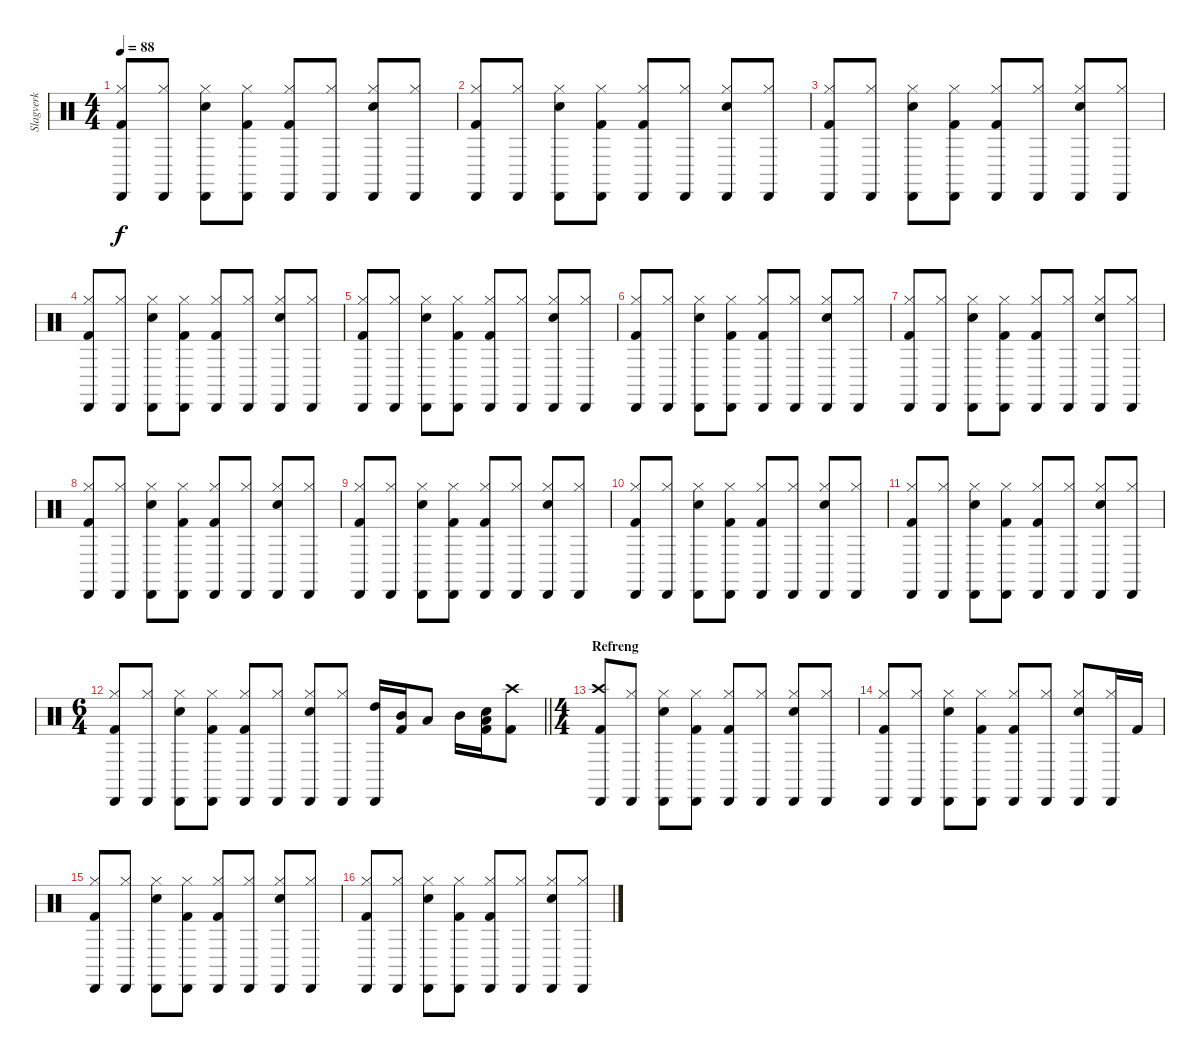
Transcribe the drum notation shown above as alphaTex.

\track ("Slagverk" "Slagverk") {instrument percussion}
\staff {score}
\articulation defaults
\ts (4 4)
\tempo 88
\clef neutral
\ks c
("Hi-Hat (closed)" "Cabasa (hit)" "Kick (hit) 2").8{dy f} ("Hi-Hat (closed)" "Cabasa (hit)").8 ("Hi-Hat (closed)" "Snare (hit) 2" "Cabasa (hit)").8 ("Hi-Hat (closed)" "Cabasa (hit)" "Kick (hit) 2").8 ("Hi-Hat (closed)" "Cabasa (hit)" "Kick (hit) 2").8 ("Hi-Hat (closed)" "Cabasa (hit)").8 ("Hi-Hat (closed)" "Snare (hit) 2" "Cabasa (hit)").8 ("Hi-Hat (closed)" "Cabasa (hit)").8 |
("Hi-Hat (closed)" "Cabasa (hit)" "Kick (hit) 2").8 ("Hi-Hat (closed)" "Cabasa (hit)").8 ("Hi-Hat (closed)" "Snare (hit) 2" "Cabasa (hit)").8 ("Hi-Hat (closed)" "Cabasa (hit)" "Kick (hit) 2").8 ("Hi-Hat (closed)" "Cabasa (hit)" "Kick (hit) 2").8 ("Hi-Hat (closed)" "Cabasa (hit)").8 ("Hi-Hat (closed)" "Snare (hit) 2" "Cabasa (hit)").8 ("Hi-Hat (closed)" "Cabasa (hit)").8 |
("Hi-Hat (closed)" "Cabasa (hit)" "Kick (hit) 2").8 ("Hi-Hat (closed)" "Cabasa (hit)").8 ("Hi-Hat (closed)" "Snare (hit) 2" "Cabasa (hit)").8 ("Hi-Hat (closed)" "Cabasa (hit)" "Kick (hit) 2").8 ("Hi-Hat (closed)" "Cabasa (hit)" "Kick (hit) 2").8 ("Hi-Hat (closed)" "Cabasa (hit)").8 ("Hi-Hat (closed)" "Snare (hit) 2" "Cabasa (hit)").8 ("Hi-Hat (closed)" "Cabasa (hit)").8 |
("Hi-Hat (closed)" "Cabasa (hit)" "Kick (hit) 2").8 ("Hi-Hat (closed)" "Cabasa (hit)").8 ("Hi-Hat (closed)" "Snare (hit) 2" "Cabasa (hit)").8 ("Hi-Hat (closed)" "Cabasa (hit)" "Kick (hit) 2").8 ("Hi-Hat (closed)" "Cabasa (hit)" "Kick (hit) 2").8 ("Hi-Hat (closed)" "Cabasa (hit)").8 ("Hi-Hat (closed)" "Snare (hit) 2" "Cabasa (hit)").8 ("Hi-Hat (closed)" "Cabasa (hit)").8 |
("Hi-Hat (closed)" "Cabasa (hit)" "Kick (hit) 2").8 ("Hi-Hat (closed)" "Cabasa (hit)").8 ("Hi-Hat (closed)" "Snare (hit) 2" "Cabasa (hit)").8 ("Hi-Hat (closed)" "Cabasa (hit)" "Kick (hit) 2").8 ("Hi-Hat (closed)" "Cabasa (hit)" "Kick (hit) 2").8 ("Hi-Hat (closed)" "Cabasa (hit)").8 ("Hi-Hat (closed)" "Snare (hit) 2" "Cabasa (hit)").8 ("Hi-Hat (closed)" "Cabasa (hit)").8 |
("Hi-Hat (closed)" "Cabasa (hit)" "Kick (hit) 2").8 ("Hi-Hat (closed)" "Cabasa (hit)").8 ("Hi-Hat (closed)" "Snare (hit) 2" "Cabasa (hit)").8 ("Hi-Hat (closed)" "Cabasa (hit)" "Kick (hit) 2").8 ("Hi-Hat (closed)" "Cabasa (hit)" "Kick (hit) 2").8 ("Hi-Hat (closed)" "Cabasa (hit)").8 ("Hi-Hat (closed)" "Snare (hit) 2" "Cabasa (hit)").8 ("Hi-Hat (closed)" "Cabasa (hit)").8 |
("Hi-Hat (closed)" "Cabasa (hit)" "Kick (hit) 2").8 ("Hi-Hat (closed)" "Cabasa (hit)").8 ("Hi-Hat (closed)" "Snare (hit) 2" "Cabasa (hit)").8 ("Hi-Hat (closed)" "Cabasa (hit)" "Kick (hit) 2").8 ("Hi-Hat (closed)" "Cabasa (hit)" "Kick (hit) 2").8 ("Hi-Hat (closed)" "Cabasa (hit)").8 ("Hi-Hat (closed)" "Snare (hit) 2" "Cabasa (hit)").8 ("Hi-Hat (closed)" "Cabasa (hit)").8 |
("Hi-Hat (closed)" "Cabasa (hit)" "Kick (hit) 2").8 ("Hi-Hat (closed)" "Cabasa (hit)").8 ("Hi-Hat (closed)" "Snare (hit) 2" "Cabasa (hit)").8 ("Hi-Hat (closed)" "Cabasa (hit)" "Kick (hit) 2").8 ("Hi-Hat (closed)" "Cabasa (hit)" "Kick (hit) 2").8 ("Hi-Hat (closed)" "Cabasa (hit)").8 ("Hi-Hat (closed)" "Snare (hit) 2" "Cabasa (hit)").8 ("Hi-Hat (closed)" "Cabasa (hit)").8 |
("Hi-Hat (closed)" "Cabasa (hit)" "Kick (hit) 2").8 ("Hi-Hat (closed)" "Cabasa (hit)").8 ("Hi-Hat (closed)" "Snare (hit) 2" "Cabasa (hit)").8 ("Hi-Hat (closed)" "Cabasa (hit)" "Kick (hit) 2").8 ("Hi-Hat (closed)" "Cabasa (hit)" "Kick (hit) 2").8 ("Hi-Hat (closed)" "Cabasa (hit)").8 ("Hi-Hat (closed)" "Snare (hit) 2" "Cabasa (hit)").8 ("Hi-Hat (closed)" "Cabasa (hit)").8 |
("Hi-Hat (closed)" "Cabasa (hit)" "Kick (hit) 2").8 ("Hi-Hat (closed)" "Cabasa (hit)").8 ("Hi-Hat (closed)" "Snare (hit) 2" "Cabasa (hit)").8 ("Hi-Hat (closed)" "Cabasa (hit)" "Kick (hit) 2").8 ("Hi-Hat (closed)" "Cabasa (hit)" "Kick (hit) 2").8 ("Hi-Hat (closed)" "Cabasa (hit)").8 ("Hi-Hat (closed)" "Snare (hit) 2" "Cabasa (hit)").8 ("Hi-Hat (closed)" "Cabasa (hit)").8 |
("Hi-Hat (closed)" "Cabasa (hit)" "Kick (hit) 2").8 ("Hi-Hat (closed)" "Cabasa (hit)").8 ("Hi-Hat (closed)" "Snare (hit) 2" "Cabasa (hit)").8 ("Hi-Hat (closed)" "Cabasa (hit)" "Kick (hit) 2").8 ("Hi-Hat (closed)" "Cabasa (hit)" "Kick (hit) 2").8 ("Hi-Hat (closed)" "Cabasa (hit)").8 ("Hi-Hat (closed)" "Snare (hit) 2" "Cabasa (hit)").8 ("Hi-Hat (closed)" "Cabasa (hit)").8 |
\ts (6 4)
\barLineRight lightlight
("Hi-Hat (closed)" "Cabasa (hit)" "Kick (hit) 2").8 ("Hi-Hat (closed)" "Cabasa (hit)").8 ("Hi-Hat (closed)" "Snare (hit) 2" "Cabasa (hit)").8 ("Hi-Hat (closed)" "Cabasa (hit)" "Kick (hit) 2").8 ("Hi-Hat (closed)" "Cabasa (hit)" "Kick (hit) 2").8 ("Hi-Hat (closed)" "Cabasa (hit)").8 ("Hi-Hat (closed)" "Snare (hit) 2" "Cabasa (hit)").8 ("Hi-Hat (closed)" "Cabasa (hit)").8 ("High Tom (hit)" "Cabasa (hit)").16 ("Mid Tom (hit)" "Kick (hit) 2").16 "Low Tom (hit)".8 "Mid Tom (hit)".16 ("Low Tom (hit)" "Snare (hit) 2" "Kick (hit) 2").16 ("Crash high (hit)" "Kick (hit) 2").8 |
\ts (4 4)
\section ("" "Refreng")
("Crash high (hit)" "Cabasa (hit)" "Kick (hit) 2").8 ("Hi-Hat (closed)" "Cabasa (hit)").8 ("Hi-Hat (closed)" "Snare (hit) 2" "Cabasa (hit)").8 ("Hi-Hat (closed)" "Cabasa (hit)" "Kick (hit) 2").8 ("Hi-Hat (closed)" "Cabasa (hit)" "Kick (hit) 2").8 ("Hi-Hat (closed)" "Cabasa (hit)").8 ("Hi-Hat (closed)" "Snare (hit) 2" "Cabasa (hit)").8 ("Hi-Hat (closed)" "Cabasa (hit)").8 |
("Hi-Hat (closed)" "Cabasa (hit)" "Kick (hit) 2").8 ("Hi-Hat (closed)" "Cabasa (hit)").8 ("Hi-Hat (closed)" "Snare (hit) 2" "Cabasa (hit)").8 ("Hi-Hat (closed)" "Cabasa (hit)" "Kick (hit) 2").8 ("Hi-Hat (closed)" "Cabasa (hit)" "Kick (hit) 2").8 ("Hi-Hat (closed)" "Cabasa (hit)").8 ("Hi-Hat (closed)" "Snare (hit) 2" "Cabasa (hit)").8 ("Hi-Hat (closed)" "Cabasa (hit)").16 "Kick (hit) 2".16 |
("Hi-Hat (closed)" "Cabasa (hit)" "Kick (hit) 2").8 ("Hi-Hat (closed)" "Cabasa (hit)").8 ("Hi-Hat (closed)" "Snare (hit) 2" "Cabasa (hit)").8 ("Hi-Hat (closed)" "Cabasa (hit)" "Kick (hit) 2").8 ("Hi-Hat (closed)" "Cabasa (hit)" "Kick (hit) 2").8 ("Hi-Hat (closed)" "Cabasa (hit)").8 ("Hi-Hat (closed)" "Snare (hit) 2" "Cabasa (hit)").8 ("Hi-Hat (closed)" "Cabasa (hit)").8 |
("Hi-Hat (closed)" "Cabasa (hit)" "Kick (hit) 2").8 ("Hi-Hat (closed)" "Cabasa (hit)").8 ("Hi-Hat (closed)" "Snare (hit) 2" "Cabasa (hit)").8 ("Hi-Hat (closed)" "Cabasa (hit)" "Kick (hit) 2").8 ("Hi-Hat (closed)" "Cabasa (hit)" "Kick (hit) 2").8 ("Hi-Hat (closed)" "Cabasa (hit)").8 ("Hi-Hat (closed)" "Snare (hit) 2" "Cabasa (hit)").8 ("Hi-Hat (closed)" "Cabasa (hit)").8
